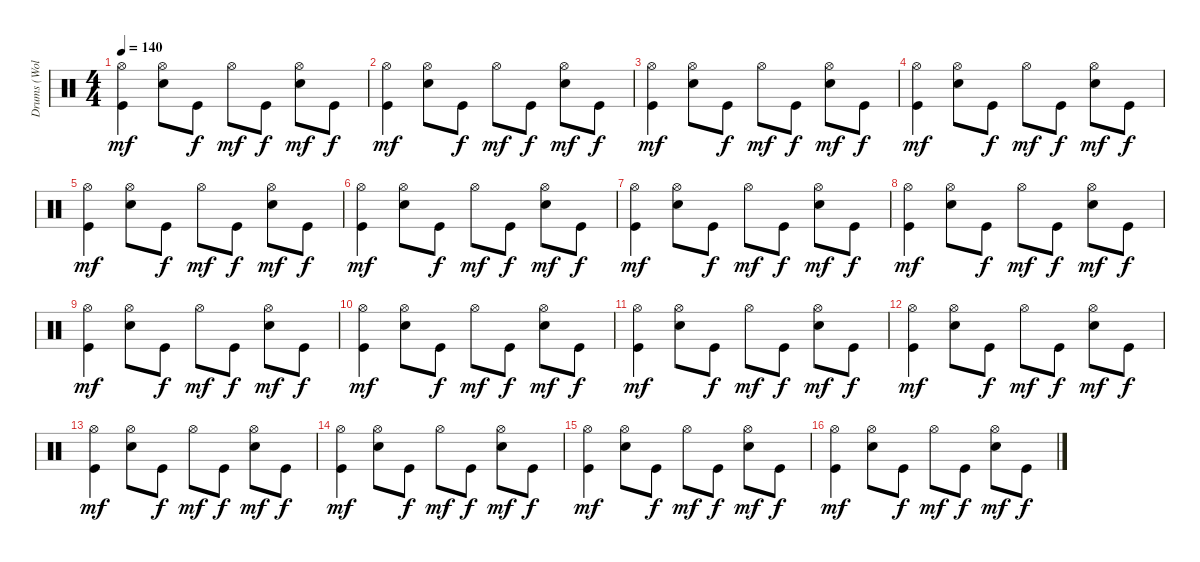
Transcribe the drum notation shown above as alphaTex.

\track ("Drums (Wolf Simons)" "Drums (Wol") {instrument percussion}
\staff {score}
\articulation defaults
\ts (4 4)
\tempo 140
\clef neutral
\ks c
("Kick (hit)" "Hi-Hat (open)").4{dy mf} ("Electric Snare (hit)" "Hi-Hat (open)").8 "Kick (hit)".8{dy f} "Hi-Hat (open)".8{dy mf} "Kick (hit)".8{dy f} ("Electric Snare (hit)" "Hi-Hat (open)").8{dy mf} "Kick (hit)".8{dy f} |
("Kick (hit)" "Hi-Hat (open)").4{dy mf} ("Electric Snare (hit)" "Hi-Hat (open)").8 "Kick (hit)".8{dy f} "Hi-Hat (open)".8{dy mf} "Kick (hit)".8{dy f} ("Electric Snare (hit)" "Hi-Hat (open)").8{dy mf} "Kick (hit)".8{dy f} |
("Kick (hit)" "Hi-Hat (open)").4{dy mf} ("Electric Snare (hit)" "Hi-Hat (open)").8 "Kick (hit)".8{dy f} "Hi-Hat (open)".8{dy mf} "Kick (hit)".8{dy f} ("Electric Snare (hit)" "Hi-Hat (open)").8{dy mf} "Kick (hit)".8{dy f} |
("Kick (hit)" "Hi-Hat (open)").4{dy mf} ("Electric Snare (hit)" "Hi-Hat (open)").8 "Kick (hit)".8{dy f} "Hi-Hat (open)".8{dy mf} "Kick (hit)".8{dy f} ("Electric Snare (hit)" "Hi-Hat (open)").8{dy mf} "Kick (hit)".8{dy f} |
("Kick (hit)" "Hi-Hat (open)").4{dy mf} ("Electric Snare (hit)" "Hi-Hat (open)").8 "Kick (hit)".8{dy f} "Hi-Hat (open)".8{dy mf} "Kick (hit)".8{dy f} ("Electric Snare (hit)" "Hi-Hat (open)").8{dy mf} "Kick (hit)".8{dy f} |
("Kick (hit)" "Hi-Hat (open)").4{dy mf} ("Electric Snare (hit)" "Hi-Hat (open)").8 "Kick (hit)".8{dy f} "Hi-Hat (open)".8{dy mf} "Kick (hit)".8{dy f} ("Electric Snare (hit)" "Hi-Hat (open)").8{dy mf} "Kick (hit)".8{dy f} |
("Kick (hit)" "Hi-Hat (open)").4{dy mf} ("Electric Snare (hit)" "Hi-Hat (open)").8 "Kick (hit)".8{dy f} "Hi-Hat (open)".8{dy mf} "Kick (hit)".8{dy f} ("Electric Snare (hit)" "Hi-Hat (open)").8{dy mf} "Kick (hit)".8{dy f} |
("Kick (hit)" "Hi-Hat (open)").4{dy mf} ("Electric Snare (hit)" "Hi-Hat (open)").8 "Kick (hit)".8{dy f} "Hi-Hat (open)".8{dy mf} "Kick (hit)".8{dy f} ("Electric Snare (hit)" "Hi-Hat (open)").8{dy mf} "Kick (hit)".8{dy f} |
("Kick (hit)" "Hi-Hat (open)").4{dy mf} ("Electric Snare (hit)" "Hi-Hat (open)").8 "Kick (hit)".8{dy f} "Hi-Hat (open)".8{dy mf} "Kick (hit)".8{dy f} ("Electric Snare (hit)" "Hi-Hat (open)").8{dy mf} "Kick (hit)".8{dy f} |
("Kick (hit)" "Hi-Hat (open)").4{dy mf} ("Electric Snare (hit)" "Hi-Hat (open)").8 "Kick (hit)".8{dy f} "Hi-Hat (open)".8{dy mf} "Kick (hit)".8{dy f} ("Electric Snare (hit)" "Hi-Hat (open)").8{dy mf} "Kick (hit)".8{dy f} |
("Kick (hit)" "Hi-Hat (open)").4{dy mf} ("Electric Snare (hit)" "Hi-Hat (open)").8 "Kick (hit)".8{dy f} "Hi-Hat (open)".8{dy mf} "Kick (hit)".8{dy f} ("Electric Snare (hit)" "Hi-Hat (open)").8{dy mf} "Kick (hit)".8{dy f} |
("Kick (hit)" "Hi-Hat (open)").4{dy mf} ("Electric Snare (hit)" "Hi-Hat (open)").8 "Kick (hit)".8{dy f} "Hi-Hat (open)".8{dy mf} "Kick (hit)".8{dy f} ("Electric Snare (hit)" "Hi-Hat (open)").8{dy mf} "Kick (hit)".8{dy f} |
("Kick (hit)" "Hi-Hat (open)").4{dy mf} ("Electric Snare (hit)" "Hi-Hat (open)").8 "Kick (hit)".8{dy f} "Hi-Hat (open)".8{dy mf} "Kick (hit)".8{dy f} ("Electric Snare (hit)" "Hi-Hat (open)").8{dy mf} "Kick (hit)".8{dy f} |
("Kick (hit)" "Hi-Hat (open)").4{dy mf} ("Electric Snare (hit)" "Hi-Hat (open)").8 "Kick (hit)".8{dy f} "Hi-Hat (open)".8{dy mf} "Kick (hit)".8{dy f} ("Electric Snare (hit)" "Hi-Hat (open)").8{dy mf} "Kick (hit)".8{dy f} |
("Kick (hit)" "Hi-Hat (open)").4{dy mf} ("Electric Snare (hit)" "Hi-Hat (open)").8 "Kick (hit)".8{dy f} "Hi-Hat (open)".8{dy mf} "Kick (hit)".8{dy f} ("Electric Snare (hit)" "Hi-Hat (open)").8{dy mf} "Kick (hit)".8{dy f} |
("Kick (hit)" "Hi-Hat (open)").4{dy mf} ("Electric Snare (hit)" "Hi-Hat (open)").8 "Kick (hit)".8{dy f} "Hi-Hat (open)".8{dy mf} "Kick (hit)".8{dy f} ("Electric Snare (hit)" "Hi-Hat (open)").8{dy mf} "Kick (hit)".8{dy f}
